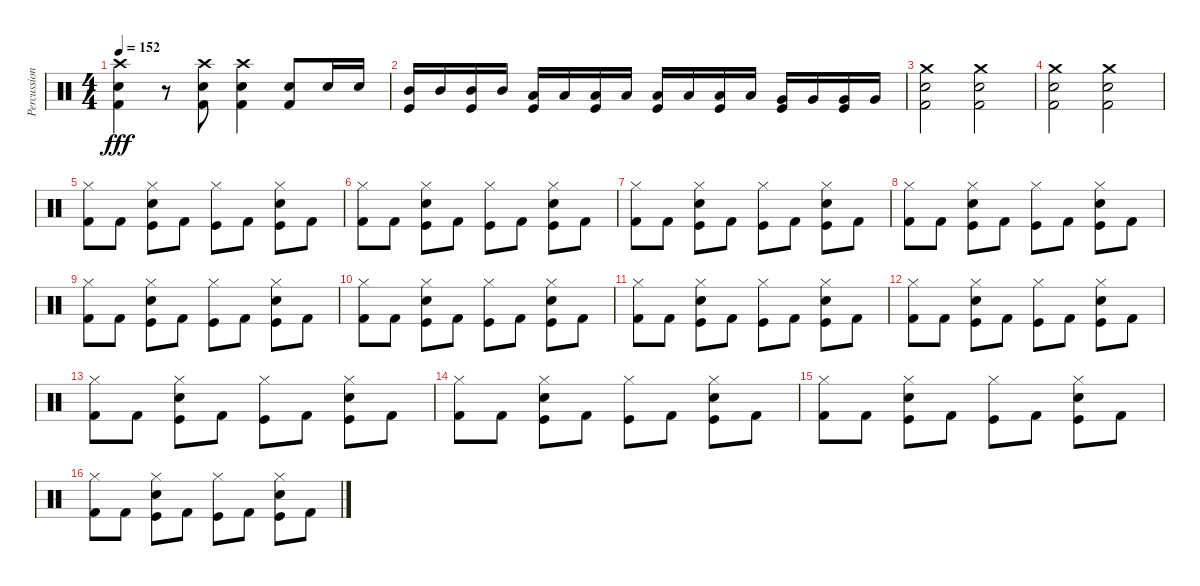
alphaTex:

\track ("Percussions" "Percussion") {instrument percussion}
\staff {score}
\articulation defaults
\ts (4 4)
\tempo 152
\clef neutral
\ks c
("Crash high (hit)" "Snare (hit) 2" "Kick (hit) 2").4{dy fff} r.8 ("Crash high (hit)" "Snare (hit) 2" "Kick (hit) 2").8 ("Crash high (hit)" "Snare (hit) 2" "Kick (hit) 2").4 ("Snare (hit) 2" "Kick (hit) 2").8 "Snare (hit) 2".16 "Snare (hit) 2".16 |
("Mid Tom (hit)" "Kick (hit)").16 "Mid Tom (hit)".16 ("Mid Tom (hit)" "Kick (hit)").16 "Mid Tom (hit)".16 ("Low Tom (hit)" "Kick (hit)").16 "Low Tom (hit)".16 ("Low Tom (hit)" "Kick (hit)").16 "Low Tom (hit)".16 ("Low Floor Tom (hit)" "Kick (hit)").16 "Low Floor Tom (hit)".16 ("Low Floor Tom (hit)" "Kick (hit)").16 "Low Floor Tom (hit)".16 ("Very Low Tom (hit)" "Kick (hit)").16 "Very Low Tom (hit)".16 ("Very Low Tom (hit)" "Kick (hit)").16 "Very Low Tom (hit)".16 |
("Crash medium (hit)" "Snare (hit) 2" "Kick (hit) 2").2 ("Crash medium (hit)" "Snare (hit) 2" "Kick (hit) 2").2 |
("Crash medium (hit)" "Snare (hit) 2" "Kick (hit) 2").2 ("Crash medium (hit)" "Snare (hit) 2" "Kick (hit) 2").2 |
("Hi-Hat (closed)" "Kick (hit) 2").8 "Kick (hit) 2".8 ("Hi-Hat (closed)" "Snare (hit) 2" "Kick (hit)").8 "Kick (hit) 2".8 ("Hi-Hat (closed)" "Kick (hit)").8 "Kick (hit) 2".8 ("Hi-Hat (closed)" "Snare (hit) 2" "Kick (hit)").8 "Kick (hit) 2".8 |
("Hi-Hat (closed)" "Kick (hit) 2").8 "Kick (hit) 2".8 ("Hi-Hat (closed)" "Snare (hit) 2" "Kick (hit)").8 "Kick (hit) 2".8 ("Hi-Hat (closed)" "Kick (hit)").8 "Kick (hit) 2".8 ("Hi-Hat (closed)" "Snare (hit) 2" "Kick (hit)").8 "Kick (hit) 2".8 |
("Hi-Hat (closed)" "Kick (hit) 2").8 "Kick (hit) 2".8 ("Hi-Hat (closed)" "Snare (hit) 2" "Kick (hit)").8 "Kick (hit) 2".8 ("Hi-Hat (closed)" "Kick (hit)").8 "Kick (hit) 2".8 ("Hi-Hat (closed)" "Snare (hit) 2" "Kick (hit)").8 "Kick (hit) 2".8 |
("Hi-Hat (closed)" "Kick (hit) 2").8 "Kick (hit) 2".8 ("Hi-Hat (closed)" "Snare (hit) 2" "Kick (hit)").8 "Kick (hit) 2".8 ("Hi-Hat (closed)" "Kick (hit)").8 "Kick (hit) 2".8 ("Hi-Hat (closed)" "Snare (hit) 2" "Kick (hit)").8 "Kick (hit) 2".8 |
("Hi-Hat (closed)" "Kick (hit) 2").8 "Kick (hit) 2".8 ("Hi-Hat (closed)" "Snare (hit) 2" "Kick (hit)").8 "Kick (hit) 2".8 ("Hi-Hat (closed)" "Kick (hit)").8 "Kick (hit) 2".8 ("Hi-Hat (closed)" "Snare (hit) 2" "Kick (hit)").8 "Kick (hit) 2".8 |
("Hi-Hat (closed)" "Kick (hit) 2").8 "Kick (hit) 2".8 ("Hi-Hat (closed)" "Snare (hit) 2" "Kick (hit)").8 "Kick (hit) 2".8 ("Hi-Hat (closed)" "Kick (hit)").8 "Kick (hit) 2".8 ("Hi-Hat (closed)" "Snare (hit) 2" "Kick (hit)").8 "Kick (hit) 2".8 |
("Hi-Hat (closed)" "Kick (hit) 2").8 "Kick (hit) 2".8 ("Hi-Hat (closed)" "Snare (hit) 2" "Kick (hit)").8 "Kick (hit) 2".8 ("Hi-Hat (closed)" "Kick (hit)").8 "Kick (hit) 2".8 ("Hi-Hat (closed)" "Snare (hit) 2" "Kick (hit)").8 "Kick (hit) 2".8 |
("Hi-Hat (closed)" "Kick (hit) 2").8 "Kick (hit) 2".8 ("Hi-Hat (closed)" "Snare (hit) 2" "Kick (hit)").8 "Kick (hit) 2".8 ("Hi-Hat (closed)" "Kick (hit)").8 "Kick (hit) 2".8 ("Hi-Hat (closed)" "Snare (hit) 2" "Kick (hit)").8 "Kick (hit) 2".8 |
("Hi-Hat (closed)" "Kick (hit) 2").8 "Kick (hit) 2".8 ("Hi-Hat (closed)" "Snare (hit) 2" "Kick (hit)").8 "Kick (hit) 2".8 ("Hi-Hat (closed)" "Kick (hit)").8 "Kick (hit) 2".8 ("Hi-Hat (closed)" "Snare (hit) 2" "Kick (hit)").8 "Kick (hit) 2".8 |
("Hi-Hat (closed)" "Kick (hit) 2").8 "Kick (hit) 2".8 ("Hi-Hat (closed)" "Snare (hit) 2" "Kick (hit)").8 "Kick (hit) 2".8 ("Hi-Hat (closed)" "Kick (hit)").8 "Kick (hit) 2".8 ("Hi-Hat (closed)" "Snare (hit) 2" "Kick (hit)").8 "Kick (hit) 2".8 |
("Hi-Hat (closed)" "Kick (hit) 2").8 "Kick (hit) 2".8 ("Hi-Hat (closed)" "Snare (hit) 2" "Kick (hit)").8 "Kick (hit) 2".8 ("Hi-Hat (closed)" "Kick (hit)").8 "Kick (hit) 2".8 ("Hi-Hat (closed)" "Snare (hit) 2" "Kick (hit)").8 "Kick (hit) 2".8 |
("Hi-Hat (closed)" "Kick (hit) 2").8 "Kick (hit) 2".8 ("Hi-Hat (closed)" "Snare (hit) 2" "Kick (hit)").8 "Kick (hit) 2".8 ("Hi-Hat (closed)" "Kick (hit)").8 "Kick (hit) 2".8 ("Hi-Hat (closed)" "Snare (hit) 2" "Kick (hit)").8 "Kick (hit) 2".8
